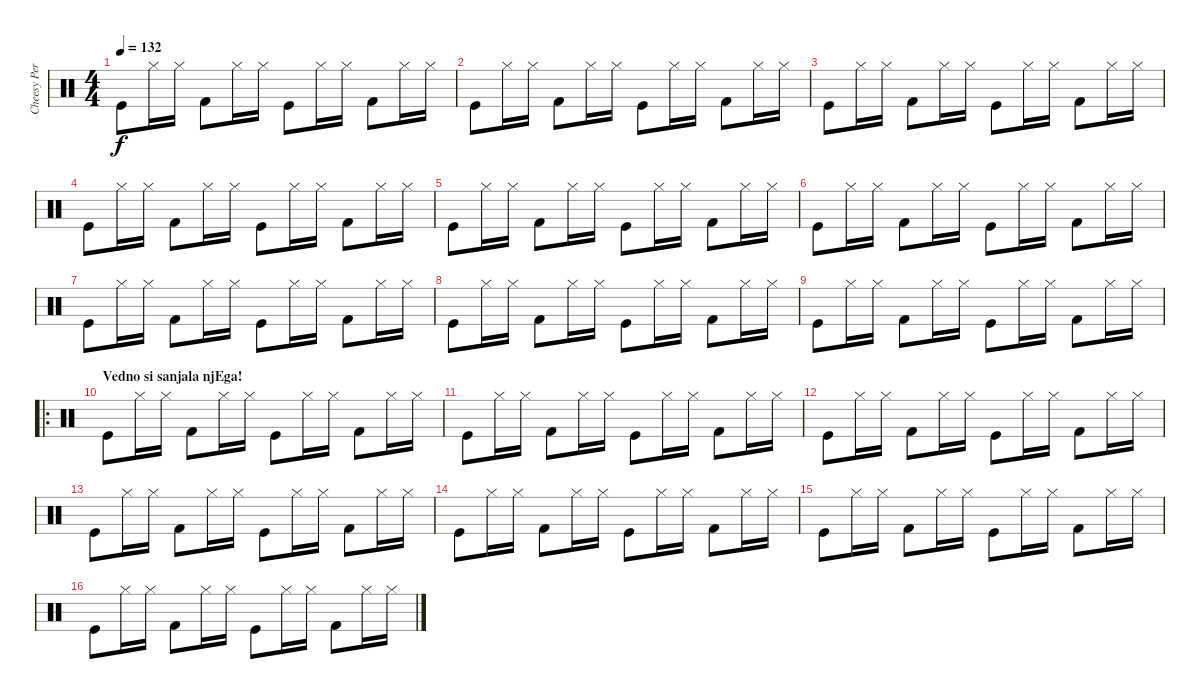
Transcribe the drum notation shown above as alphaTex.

\track ("Cheesy Percussion" "Cheesy Per") {instrument percussion}
\staff {score}
\articulation defaults
\ts (4 4)
\tempo 132
\clef neutral
\ks c "Kick (hit)".8{dy f} "Hi-Hat (closed)".16 "Hi-Hat (closed)".16 "Kick (hit) 2".8 "Hi-Hat (closed)".16 "Hi-Hat (closed)".16 "Kick (hit)".8 "Hi-Hat (closed)".16 "Hi-Hat (closed)".16 "Kick (hit) 2".8 "Hi-Hat (closed)".16 "Hi-Hat (closed)".16
|
"Kick (hit)".8 "Hi-Hat (closed)".16 "Hi-Hat (closed)".16 "Kick (hit) 2".8 "Hi-Hat (closed)".16 "Hi-Hat (closed)".16 "Kick (hit)".8 "Hi-Hat (closed)".16 "Hi-Hat (closed)".16 "Kick (hit) 2".8 "Hi-Hat (closed)".16 "Hi-Hat (closed)".16 |
"Kick (hit)".8 "Hi-Hat (closed)".16 "Hi-Hat (closed)".16 "Kick (hit) 2".8 "Hi-Hat (closed)".16 "Hi-Hat (closed)".16 "Kick (hit)".8 "Hi-Hat (closed)".16 "Hi-Hat (closed)".16 "Kick (hit) 2".8 "Hi-Hat (closed)".16 "Hi-Hat (closed)".16 |
"Kick (hit)".8 "Hi-Hat (closed)".16 "Hi-Hat (closed)".16 "Kick (hit) 2".8 "Hi-Hat (closed)".16 "Hi-Hat (closed)".16 "Kick (hit)".8 "Hi-Hat (closed)".16 "Hi-Hat (closed)".16 "Kick (hit) 2".8 "Hi-Hat (closed)".16 "Hi-Hat (closed)".16 |
"Kick (hit)".8 "Hi-Hat (closed)".16 "Hi-Hat (closed)".16 "Kick (hit) 2".8 "Hi-Hat (closed)".16 "Hi-Hat (closed)".16 "Kick (hit)".8 "Hi-Hat (closed)".16 "Hi-Hat (closed)".16 "Kick (hit) 2".8 "Hi-Hat (closed)".16 "Hi-Hat (closed)".16 |
"Kick (hit)".8 "Hi-Hat (closed)".16 "Hi-Hat (closed)".16 "Kick (hit) 2".8 "Hi-Hat (closed)".16 "Hi-Hat (closed)".16 "Kick (hit)".8 "Hi-Hat (closed)".16 "Hi-Hat (closed)".16 "Kick (hit) 2".8 "Hi-Hat (closed)".16 "Hi-Hat (closed)".16 |
"Kick (hit)".8 "Hi-Hat (closed)".16 "Hi-Hat (closed)".16 "Kick (hit) 2".8 "Hi-Hat (closed)".16 "Hi-Hat (closed)".16 "Kick (hit)".8 "Hi-Hat (closed)".16 "Hi-Hat (closed)".16 "Kick (hit) 2".8 "Hi-Hat (closed)".16 "Hi-Hat (closed)".16 |
"Kick (hit)".8 "Hi-Hat (closed)".16 "Hi-Hat (closed)".16 "Kick (hit) 2".8 "Hi-Hat (closed)".16 "Hi-Hat (closed)".16 "Kick (hit)".8 "Hi-Hat (closed)".16 "Hi-Hat (closed)".16 "Kick (hit) 2".8 "Hi-Hat (closed)".16 "Hi-Hat (closed)".16 |
"Kick (hit)".8 "Hi-Hat (closed)".16 "Hi-Hat (closed)".16 "Kick (hit) 2".8 "Hi-Hat (closed)".16 "Hi-Hat (closed)".16 "Kick (hit)".8 "Hi-Hat (closed)".16 "Hi-Hat (closed)".16 "Kick (hit) 2".8 "Hi-Hat (closed)".16 "Hi-Hat (closed)".16 |
\ro
\section ("" "Vedno si sanjala njEga!")
"Kick (hit)".8 "Hi-Hat (closed)".16 "Hi-Hat (closed)".16 "Kick (hit) 2".8 "Hi-Hat (closed)".16 "Hi-Hat (closed)".16 "Kick (hit)".8 "Hi-Hat (closed)".16 "Hi-Hat (closed)".16 "Kick (hit) 2".8 "Hi-Hat (closed)".16 "Hi-Hat (closed)".16 |
"Kick (hit)".8 "Hi-Hat (closed)".16 "Hi-Hat (closed)".16 "Kick (hit) 2".8 "Hi-Hat (closed)".16 "Hi-Hat (closed)".16 "Kick (hit)".8 "Hi-Hat (closed)".16 "Hi-Hat (closed)".16 "Kick (hit) 2".8 "Hi-Hat (closed)".16 "Hi-Hat (closed)".16 |
"Kick (hit)".8 "Hi-Hat (closed)".16 "Hi-Hat (closed)".16 "Kick (hit) 2".8 "Hi-Hat (closed)".16 "Hi-Hat (closed)".16 "Kick (hit)".8 "Hi-Hat (closed)".16 "Hi-Hat (closed)".16 "Kick (hit) 2".8 "Hi-Hat (closed)".16 "Hi-Hat (closed)".16 |
"Kick (hit)".8 "Hi-Hat (closed)".16 "Hi-Hat (closed)".16 "Kick (hit) 2".8 "Hi-Hat (closed)".16 "Hi-Hat (closed)".16 "Kick (hit)".8 "Hi-Hat (closed)".16 "Hi-Hat (closed)".16 "Kick (hit) 2".8 "Hi-Hat (closed)".16 "Hi-Hat (closed)".16 |
"Kick (hit)".8 "Hi-Hat (closed)".16 "Hi-Hat (closed)".16 "Kick (hit) 2".8 "Hi-Hat (closed)".16 "Hi-Hat (closed)".16 "Kick (hit)".8 "Hi-Hat (closed)".16 "Hi-Hat (closed)".16 "Kick (hit) 2".8 "Hi-Hat (closed)".16 "Hi-Hat (closed)".16 |
"Kick (hit)".8 "Hi-Hat (closed)".16 "Hi-Hat (closed)".16 "Kick (hit) 2".8 "Hi-Hat (closed)".16 "Hi-Hat (closed)".16 "Kick (hit)".8 "Hi-Hat (closed)".16 "Hi-Hat (closed)".16 "Kick (hit) 2".8 "Hi-Hat (closed)".16 "Hi-Hat (closed)".16 |
"Kick (hit)".8 "Hi-Hat (closed)".16 "Hi-Hat (closed)".16 "Kick (hit) 2".8 "Hi-Hat (closed)".16 "Hi-Hat (closed)".16 "Kick (hit)".8 "Hi-Hat (closed)".16 "Hi-Hat (closed)".16 "Kick (hit) 2".8 "Hi-Hat (closed)".16 "Hi-Hat (closed)".16
